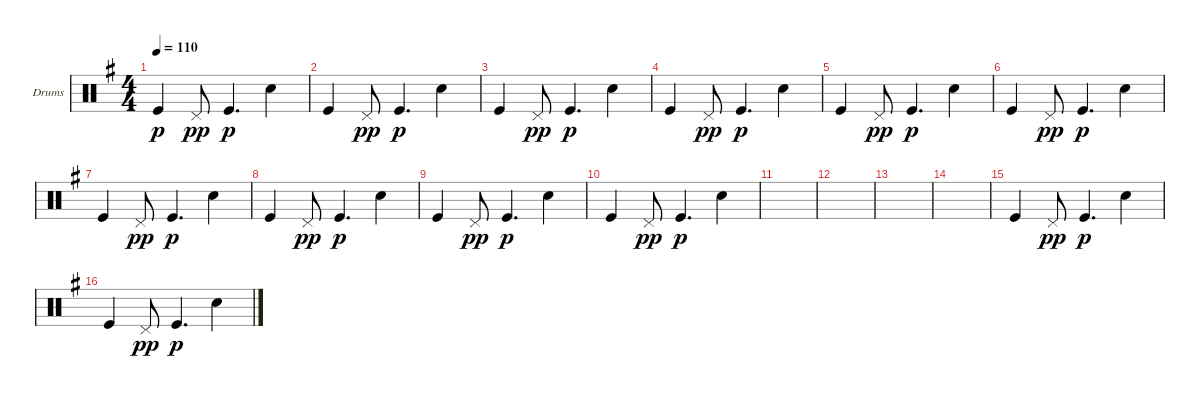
\defaultSystemsLayout 4
\bracketExtendMode groupsimilarinstruments
\firstSystemTrackNameOrientation horizontal
\otherSystemsTrackNameOrientation horizontal
\track ("Drumkit" "Drums") {instrument percussion}
\staff {score}
\articulation defaults
\ts (4 4)
\tempo 110
\clef neutral
\ks g "Kick (hit)".4{dy p} "Pedal Hi-Hat (hit)".8{dy pp} "Kick (hit)".4{d dy p} "Snare (hit) 2".4
|
"Kick (hit)".4 "Pedal Hi-Hat (hit)".8{dy pp} "Kick (hit)".4{d dy p} "Snare (hit) 2".4 |
"Kick (hit)".4 "Pedal Hi-Hat (hit)".8{dy pp} "Kick (hit)".4{d dy p} "Snare (hit) 2".4 |
"Kick (hit)".4 "Pedal Hi-Hat (hit)".8{dy pp} "Kick (hit)".4{d dy p} "Snare (hit) 2".4 |
"Kick (hit)".4 "Pedal Hi-Hat (hit)".8{dy pp} "Kick (hit)".4{d dy p} "Snare (hit) 2".4 |
"Kick (hit)".4 "Pedal Hi-Hat (hit)".8{dy pp} "Kick (hit)".4{d dy p} "Snare (hit) 2".4 |
"Kick (hit)".4 "Pedal Hi-Hat (hit)".8{dy pp} "Kick (hit)".4{d dy p} "Snare (hit) 2".4 |
"Kick (hit)".4 "Pedal Hi-Hat (hit)".8{dy pp} "Kick (hit)".4{d dy p} "Snare (hit) 2".4 |
"Kick (hit)".4 "Pedal Hi-Hat (hit)".8{dy pp} "Kick (hit)".4{d dy p} "Snare (hit) 2".4 |
"Kick (hit)".4 "Pedal Hi-Hat (hit)".8{dy pp} "Kick (hit)".4{d dy p} "Snare (hit) 2".4 |
|
|
|
|
"Kick (hit)".4 "Pedal Hi-Hat (hit)".8{dy pp} "Kick (hit)".4{d dy p} "Snare (hit) 2".4 |
"Kick (hit)".4 "Pedal Hi-Hat (hit)".8{dy pp} "Kick (hit)".4{d dy p} "Snare (hit) 2".4
